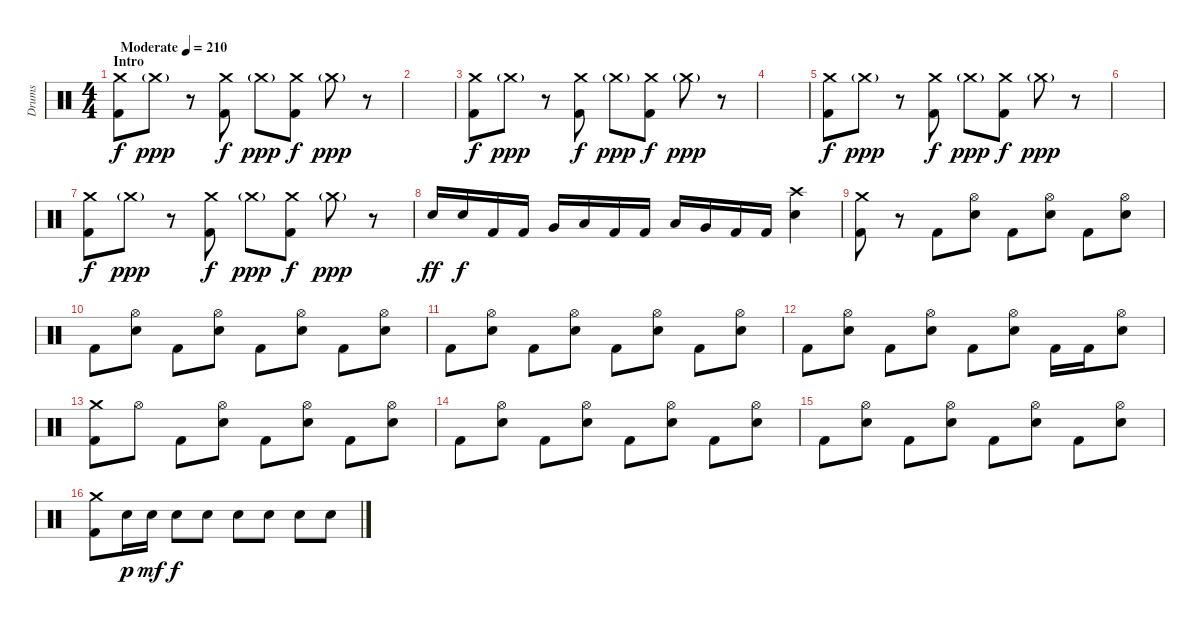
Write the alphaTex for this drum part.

\track ("Drums" "Drums") {instrument percussion}
\staff {score}
\articulation defaults
\ts (4 4)
\section ("" "Intro")
\tempo (210 "Moderate")
\clef neutral
\ks c
("Crash medium (hit)" "Kick (hit) 2").8{dy f} "Crash medium (hit)"{g}.8{dy ppp} r.8 ("Crash medium (hit)" "Kick (hit) 2").8{dy f} "Crash medium (hit)"{g}.8{dy ppp} ("Crash medium (hit)" "Kick (hit) 2").8{dy f} "Crash medium (hit)"{g}.8{dy ppp} r.8 |
|
("Crash medium (hit)" "Kick (hit) 2").8{dy f} "Crash medium (hit)"{g}.8{dy ppp} r.8 ("Crash medium (hit)" "Kick (hit) 2").8{dy f} "Crash medium (hit)"{g}.8{dy ppp} ("Crash medium (hit)" "Kick (hit) 2").8{dy f} "Crash medium (hit)"{g}.8{dy ppp} r.8 |
|
("Crash medium (hit)" "Kick (hit) 2").8{dy f} "Crash medium (hit)"{g}.8{dy ppp} r.8 ("Crash medium (hit)" "Kick (hit) 2").8{dy f} "Crash medium (hit)"{g}.8{dy ppp} ("Crash medium (hit)" "Kick (hit) 2").8{dy f} "Crash medium (hit)"{g}.8{dy ppp} r.8 |
|
("Crash medium (hit)" "Kick (hit) 2").8{dy f} "Crash medium (hit)"{g}.8{dy ppp} r.8 ("Crash medium (hit)" "Kick (hit) 2").8{dy f} "Crash medium (hit)"{g}.8{dy ppp} ("Crash medium (hit)" "Kick (hit) 2").8{dy f} "Crash medium (hit)"{g}.8{dy ppp} r.8 |
"Electric Snare (hit)".16{dy ff} "Electric Snare (hit)".16{dy f} "Kick (hit) 2".16 "Kick (hit) 2".16 "Very Low Tom (hit)".16 "Low Tom (hit)".16 "Kick (hit) 2".16 "Kick (hit) 2".16 "Low Floor Tom (hit)".16 "Very Low Tom (hit)".16 "Kick (hit) 2".16 "Kick (hit) 2".16 ("Crash high (hit)" "Electric Snare (hit)").4 |
("Crash medium (hit)" "Kick (hit) 2").8 r.8 "Kick (hit) 2".8 ("Hi-Hat (open)" "Electric Snare (hit)").8 "Kick (hit) 2".8 ("Hi-Hat (open)" "Electric Snare (hit)").8 "Kick (hit) 2".8 ("Hi-Hat (open)" "Electric Snare (hit)").8 |
"Kick (hit) 2".8 ("Hi-Hat (open)" "Electric Snare (hit)").8 "Kick (hit) 2".8 ("Hi-Hat (open)" "Electric Snare (hit)").8 "Kick (hit) 2".8 ("Hi-Hat (open)" "Electric Snare (hit)").8 "Kick (hit) 2".8 ("Hi-Hat (open)" "Electric Snare (hit)").8 |
"Kick (hit) 2".8 ("Hi-Hat (open)" "Electric Snare (hit)").8 "Kick (hit) 2".8 ("Hi-Hat (open)" "Electric Snare (hit)").8 "Kick (hit) 2".8 ("Hi-Hat (open)" "Electric Snare (hit)").8 "Kick (hit) 2".8 ("Hi-Hat (open)" "Electric Snare (hit)").8 |
"Kick (hit) 2".8 ("Hi-Hat (open)" "Electric Snare (hit)").8 "Kick (hit) 2".8 ("Hi-Hat (open)" "Electric Snare (hit)").8 "Kick (hit) 2".8 ("Hi-Hat (open)" "Electric Snare (hit)").8 "Kick (hit) 2".16 "Kick (hit) 2".16 ("Hi-Hat (open)" "Electric Snare (hit)").8 |
("Crash medium (hit)" "Kick (hit) 2").8 "Hi-Hat (open)".8 "Kick (hit) 2".8 ("Hi-Hat (open)" "Electric Snare (hit)").8 "Kick (hit) 2".8 ("Hi-Hat (open)" "Electric Snare (hit)").8 "Kick (hit) 2".8 ("Hi-Hat (open)" "Electric Snare (hit)").8 |
"Kick (hit) 2".8 ("Hi-Hat (open)" "Electric Snare (hit)").8 "Kick (hit) 2".8 ("Hi-Hat (open)" "Electric Snare (hit)").8 "Kick (hit) 2".8 ("Hi-Hat (open)" "Electric Snare (hit)").8 "Kick (hit) 2".8 ("Hi-Hat (open)" "Electric Snare (hit)").8 |
"Kick (hit) 2".8 ("Hi-Hat (open)" "Electric Snare (hit)").8 "Kick (hit) 2".8 ("Hi-Hat (open)" "Electric Snare (hit)").8 "Kick (hit) 2".8 ("Hi-Hat (open)" "Electric Snare (hit)").8 "Kick (hit) 2".8 ("Hi-Hat (open)" "Electric Snare (hit)").8 |
("Crash medium (hit)" "Kick (hit) 2").8 "Electric Snare (hit)".16{dy p} "Electric Snare (hit)".16{dy mf} "Electric Snare (hit)".8{dy f} "Electric Snare (hit)".8 "Electric Snare (hit)".8 "Electric Snare (hit)".8 "Electric Snare (hit)".8 "Electric Snare (hit)".8
